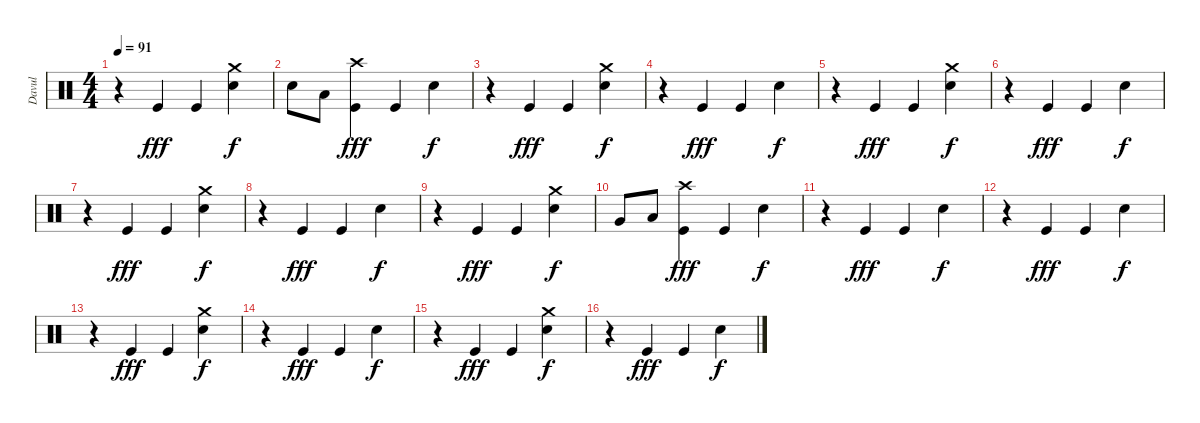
\track ("Davul" "Davul") {instrument percussion}
\staff {score}
\articulation defaults
\ts (4 4)
\tempo 91
\clef neutral
\ks c
r.4{dy f} "Kick (hit)".4{dy fff} "Kick (hit)".4 ("Crash medium (hit)" "Snare (hit) 2").4{dy f} |
"Snare (hit) 2".8 "Low Tom (hit)".8 ("Crash high (hit)" "Kick (hit)").4{dy fff} "Kick (hit)".4 "Snare (hit) 2".4{dy f} |
r.4 "Kick (hit)".4{dy fff} "Kick (hit)".4 ("Crash medium (hit)" "Snare (hit) 2").4{dy f} |
r.4 "Kick (hit)".4{dy fff} "Kick (hit)".4 "Snare (hit) 2".4{dy f} |
r.4 "Kick (hit)".4{dy fff} "Kick (hit)".4 ("Crash medium (hit)" "Snare (hit) 2").4{dy f} |
r.4 "Kick (hit)".4{dy fff} "Kick (hit)".4 "Snare (hit) 2".4{dy f} |
r.4 "Kick (hit)".4{dy fff} "Kick (hit)".4 ("Crash medium (hit)" "Snare (hit) 2").4{dy f} |
r.4 "Kick (hit)".4{dy fff} "Kick (hit)".4 "Snare (hit) 2".4{dy f} |
r.4 "Kick (hit)".4{dy fff} "Kick (hit)".4 ("Crash medium (hit)" "Snare (hit) 2").4{dy f} |
"Very Low Tom (hit)".8 "Low Floor Tom (hit)".8 ("Crash high (hit)" "Kick (hit)").4{dy fff} "Kick (hit)".4 "Snare (hit) 2".4{dy f} |
r.4 "Kick (hit)".4{dy fff} "Kick (hit)".4 "Snare (hit) 2".4{dy f} |
r.4 "Kick (hit)".4{dy fff} "Kick (hit)".4 "Snare (hit) 2".4{dy f} |
r.4 "Kick (hit)".4{dy fff} "Kick (hit)".4 ("Crash medium (hit)" "Snare (hit) 2").4{dy f} |
r.4 "Kick (hit)".4{dy fff} "Kick (hit)".4 "Snare (hit) 2".4{dy f} |
r.4 "Kick (hit)".4{dy fff} "Kick (hit)".4 ("Crash medium (hit)" "Snare (hit) 2").4{dy f} |
r.4 "Kick (hit)".4{dy fff} "Kick (hit)".4 "Snare (hit) 2".4{dy f}
